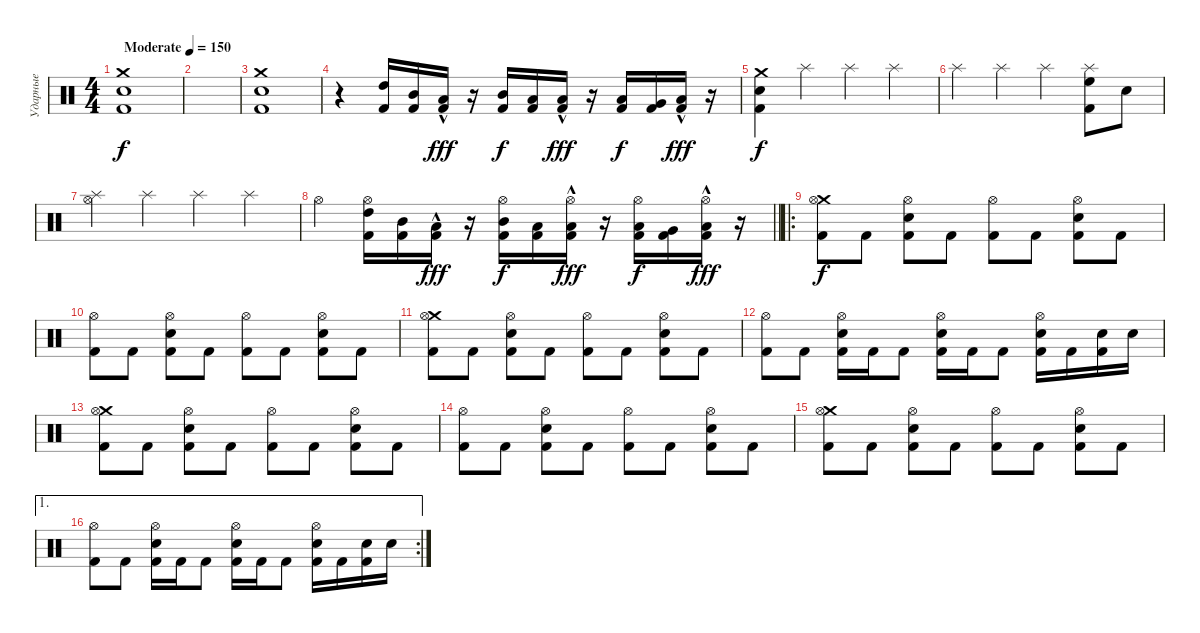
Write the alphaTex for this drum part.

\track ("Ударные" "Ударные") {instrument percussion}
\staff {score}
\articulation defaults
\ts (4 4)
\tempo (150 "Moderate")
\clef neutral
\ks c
("Crash medium (hit)" "Snare (hit) 2" "Kick (hit) 2").1{dy f} |
|
("Crash medium (hit)" "Snare (hit) 2" "Kick (hit) 2").1 |
r.4 ("High Tom (hit)" "Kick (hit) 2").16 ("Mid Tom (hit)" "Kick (hit) 2").16 ("Low Floor Tom (hit)"{hac} "Kick (hit) 2").16{dy fff} r.16 ("Mid Tom (hit)" "Kick (hit) 2").16{dy f} ("Low Tom (hit)" "Kick (hit) 2").16 ("Low Floor Tom (hit)"{hac} "Kick (hit) 2").16{dy fff} r.16 ("Low Tom (hit)" "Kick (hit) 2").16{dy f} ("Very Low Tom (hit)" "Kick (hit) 2").16 ("Low Floor Tom (hit)"{hac} "Kick (hit) 2").16{dy fff} r.16 |
("Crash medium (hit)" "Snare (hit) 2" "Kick (hit) 2").4{dy f} "Splash (hit)".4 "Splash (hit)".4 "Splash (hit)".4 |
"Splash (hit)".4 "Splash (hit)".4 "Splash (hit)".4 ("Splash (hit)" "High Floor Tom (hit)" "Kick (hit) 2").8 "Snare (hit) 2".8 |
("Splash (hit)" "Hi-Hat (open)").4 "Splash (hit)".4 "Splash (hit)".4 "Splash (hit)".4 |
\barLineRight lightlight "Hi-Hat (open)".4
("Hi-Hat (open)" "High Tom (hit)" "Kick (hit) 2").16 ("Mid Tom (hit)" "Kick (hit) 2").16 ("Low Floor Tom (hit)"{hac} "Kick (hit) 2").16{dy fff} r.16 ("Hi-Hat (open)" "Mid Tom (hit)" "Kick (hit) 2").16{dy f} ("Low Tom (hit)" "Kick (hit) 2").16 ("Hi-Hat (open)" "Low Floor Tom (hit)"{hac} "Kick (hit) 2").16{dy fff} r.16 ("Hi-Hat (open)" "Low Tom (hit)" "Kick (hit) 2").16{dy f} ("Very Low Tom (hit)" "Kick (hit) 2").16 ("Hi-Hat (open)" "Low Floor Tom (hit)"{hac} "Kick (hit) 2").16{dy fff} r.16 |
\ro
("Crash medium (hit)" "Hi-Hat (open)" "Kick (hit) 2").8{dy f} "Kick (hit) 2".8 ("Hi-Hat (open)" "Snare (hit) 2" "Kick (hit) 2").8 "Kick (hit) 2".8 ("Hi-Hat (open)" "Kick (hit) 2").8 "Kick (hit) 2".8 ("Hi-Hat (open)" "Snare (hit) 2" "Kick (hit) 2").8 "Kick (hit) 2".8 |
("Hi-Hat (open)" "Kick (hit) 2").8 "Kick (hit) 2".8 ("Hi-Hat (open)" "Snare (hit) 2" "Kick (hit) 2").8 "Kick (hit) 2".8 ("Hi-Hat (open)" "Kick (hit) 2").8 "Kick (hit) 2".8 ("Hi-Hat (open)" "Snare (hit) 2" "Kick (hit) 2").8 "Kick (hit) 2".8 |
("Crash medium (hit)" "Hi-Hat (open)" "Kick (hit) 2").8 "Kick (hit) 2".8 ("Hi-Hat (open)" "Snare (hit) 2" "Kick (hit) 2").8 "Kick (hit) 2".8 ("Hi-Hat (open)" "Kick (hit) 2").8 "Kick (hit) 2".8 ("Hi-Hat (open)" "Snare (hit) 2" "Kick (hit) 2").8 "Kick (hit) 2".8 |
("Hi-Hat (open)" "Kick (hit) 2").8 "Kick (hit) 2".8 ("Hi-Hat (open)" "Snare (hit) 2" "Kick (hit) 2").16 "Kick (hit) 2".16 "Kick (hit) 2".8 ("Hi-Hat (open)" "Snare (hit) 2" "Kick (hit) 2").16 "Kick (hit) 2".16 "Kick (hit) 2".8 ("Hi-Hat (open)" "Snare (hit) 2" "Kick (hit) 2").16 "Kick (hit) 2".16 ("Snare (hit) 2" "Kick (hit) 2").16 "Snare (hit) 2".16 |
("Crash medium (hit)" "Hi-Hat (open)" "Kick (hit) 2").8 "Kick (hit) 2".8 ("Hi-Hat (open)" "Snare (hit) 2" "Kick (hit) 2").8 "Kick (hit) 2".8 ("Hi-Hat (open)" "Kick (hit) 2").8 "Kick (hit) 2".8 ("Hi-Hat (open)" "Snare (hit) 2" "Kick (hit) 2").8 "Kick (hit) 2".8 |
("Hi-Hat (open)" "Kick (hit) 2").8 "Kick (hit) 2".8 ("Hi-Hat (open)" "Snare (hit) 2" "Kick (hit) 2").8 "Kick (hit) 2".8 ("Hi-Hat (open)" "Kick (hit) 2").8 "Kick (hit) 2".8 ("Hi-Hat (open)" "Snare (hit) 2" "Kick (hit) 2").8 "Kick (hit) 2".8 |
("Crash medium (hit)" "Hi-Hat (open)" "Kick (hit) 2").8 "Kick (hit) 2".8 ("Hi-Hat (open)" "Snare (hit) 2" "Kick (hit) 2").8 "Kick (hit) 2".8 ("Hi-Hat (open)" "Kick (hit) 2").8 "Kick (hit) 2".8 ("Hi-Hat (open)" "Snare (hit) 2" "Kick (hit) 2").8 "Kick (hit) 2".8 |
\ae 1
\rc 2
("Hi-Hat (open)" "Kick (hit) 2").8 "Kick (hit) 2".8 ("Hi-Hat (open)" "Snare (hit) 2" "Kick (hit) 2").16 "Kick (hit) 2".16 "Kick (hit) 2".8 ("Hi-Hat (open)" "Snare (hit) 2" "Kick (hit) 2").16 "Kick (hit) 2".16 "Kick (hit) 2".8 ("Hi-Hat (open)" "Snare (hit) 2" "Kick (hit) 2").16 "Kick (hit) 2".16 ("Snare (hit) 2" "Kick (hit) 2").16 "Snare (hit) 2".16
